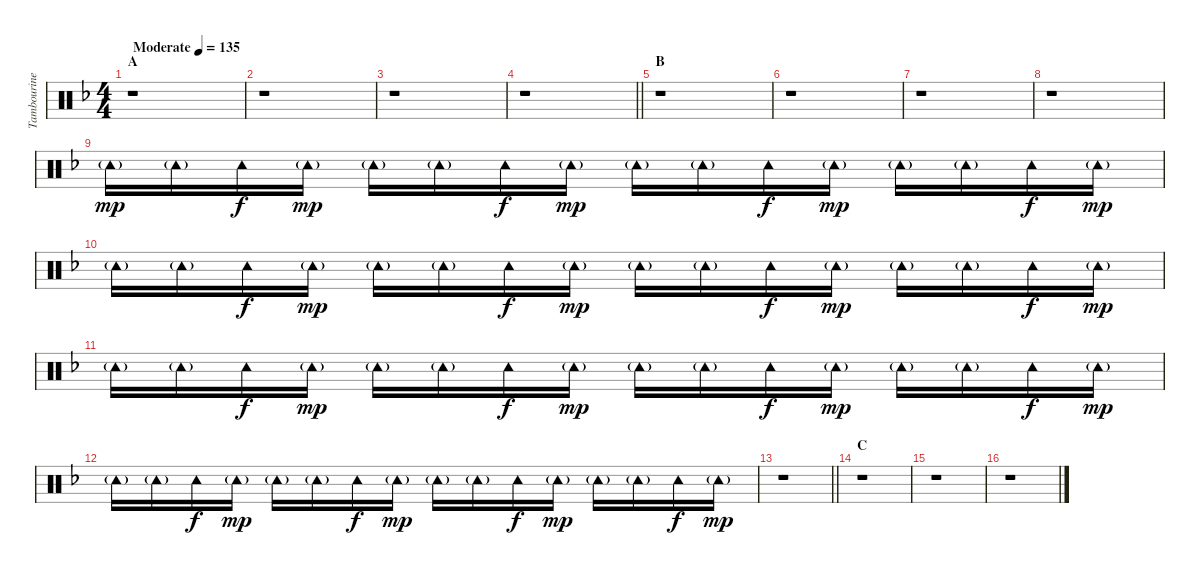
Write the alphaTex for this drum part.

\track ("Tambourine" "Tambourine") {instrument percussion}
\staff {score}
\articulation defaults
\ts (4 4)
\section ("" "A")
\tempo (135 "Moderate")
\clef neutral
\ks f
r.1{dy mp} |
r.1 |
r.1 |
\barLineRight lightlight
r.1 |
\section ("" "B")
r.1 |
r.1 |
r.1 |
r.1 |
"Tambourine (hit)"{g}.16 "Tambourine (hit)"{g}.16 "Tambourine (hit)".16{dy f} "Tambourine (hit)"{g}.16{dy mp} "Tambourine (hit)"{g}.16 "Tambourine (hit)"{g}.16 "Tambourine (hit)".16{dy f} "Tambourine (hit)"{g}.16{dy mp} "Tambourine (hit)"{g}.16 "Tambourine (hit)"{g}.16 "Tambourine (hit)".16{dy f} "Tambourine (hit)"{g}.16{dy mp} "Tambourine (hit)"{g}.16 "Tambourine (hit)"{g}.16 "Tambourine (hit)".16{dy f} "Tambourine (hit)"{g}.16{dy mp} |
"Tambourine (hit)"{g}.16 "Tambourine (hit)"{g}.16 "Tambourine (hit)".16{dy f} "Tambourine (hit)"{g}.16{dy mp} "Tambourine (hit)"{g}.16 "Tambourine (hit)"{g}.16 "Tambourine (hit)".16{dy f} "Tambourine (hit)"{g}.16{dy mp} "Tambourine (hit)"{g}.16 "Tambourine (hit)"{g}.16 "Tambourine (hit)".16{dy f} "Tambourine (hit)"{g}.16{dy mp} "Tambourine (hit)"{g}.16 "Tambourine (hit)"{g}.16 "Tambourine (hit)".16{dy f} "Tambourine (hit)"{g}.16{dy mp} |
"Tambourine (hit)"{g}.16 "Tambourine (hit)"{g}.16 "Tambourine (hit)".16{dy f} "Tambourine (hit)"{g}.16{dy mp} "Tambourine (hit)"{g}.16 "Tambourine (hit)"{g}.16 "Tambourine (hit)".16{dy f} "Tambourine (hit)"{g}.16{dy mp} "Tambourine (hit)"{g}.16 "Tambourine (hit)"{g}.16 "Tambourine (hit)".16{dy f} "Tambourine (hit)"{g}.16{dy mp} "Tambourine (hit)"{g}.16 "Tambourine (hit)"{g}.16 "Tambourine (hit)".16{dy f} "Tambourine (hit)"{g}.16{dy mp} |
"Tambourine (hit)"{g}.16 "Tambourine (hit)"{g}.16 "Tambourine (hit)".16{dy f} "Tambourine (hit)"{g}.16{dy mp} "Tambourine (hit)"{g}.16 "Tambourine (hit)"{g}.16 "Tambourine (hit)".16{dy f} "Tambourine (hit)"{g}.16{dy mp} "Tambourine (hit)"{g}.16 "Tambourine (hit)"{g}.16 "Tambourine (hit)".16{dy f} "Tambourine (hit)"{g}.16{dy mp} "Tambourine (hit)"{g}.16 "Tambourine (hit)"{g}.16 "Tambourine (hit)".16{dy f} "Tambourine (hit)"{g}.16{dy mp} |
\barLineRight lightlight
r.1 |
\section ("" "C")
r.1 |
r.1 |
r.1
